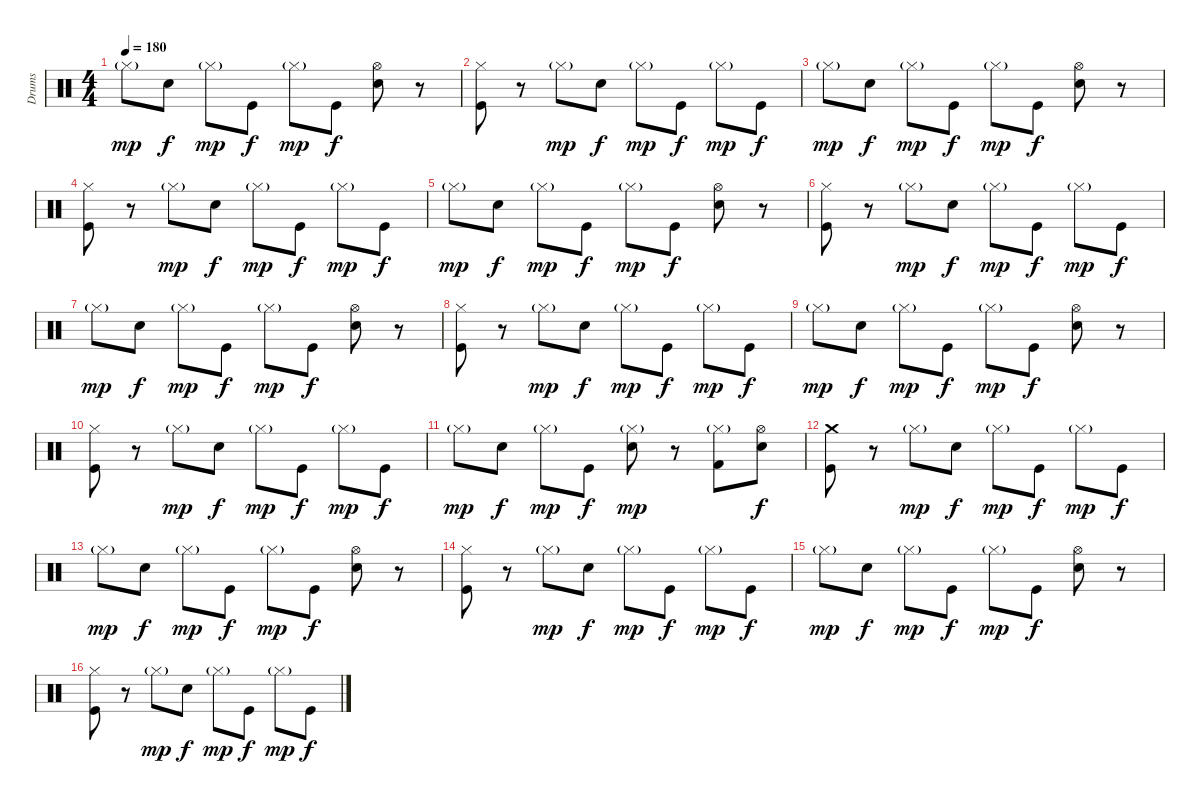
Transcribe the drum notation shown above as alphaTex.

\track ("Drums" "Drums") {instrument percussion}
\staff {score}
\articulation defaults
\ts (4 4)
\tempo 180
\clef neutral
\ks c "Hi-Hat (closed)"{g}.8{dy mp} "Electric Snare (hit)".8{dy f} "Hi-Hat (closed)"{g}.8{dy mp} "Kick (hit)".8{dy f} "Hi-Hat (closed)"{g}.8{dy mp} "Kick (hit)".8{dy f}
("Hi-Hat (open)" "Electric Snare (hit)").8 r.8 |
("Hi-Hat (closed)" "Kick (hit)").8 r.8 "Hi-Hat (closed)"{g}.8{dy mp} "Electric Snare (hit)".8{dy f} "Hi-Hat (closed)"{g}.8{dy mp} "Kick (hit)".8{dy f} "Hi-Hat (closed)"{g}.8{dy mp} "Kick (hit)".8{dy f} |
"Hi-Hat (closed)"{g}.8{dy mp} "Electric Snare (hit)".8{dy f} "Hi-Hat (closed)"{g}.8{dy mp} "Kick (hit)".8{dy f} "Hi-Hat (closed)"{g}.8{dy mp} "Kick (hit)".8{dy f} ("Hi-Hat (open)" "Electric Snare (hit)").8 r.8 |
("Hi-Hat (closed)" "Kick (hit)").8 r.8 "Hi-Hat (closed)"{g}.8{dy mp} "Electric Snare (hit)".8{dy f} "Hi-Hat (closed)"{g}.8{dy mp} "Kick (hit)".8{dy f} "Hi-Hat (closed)"{g}.8{dy mp} "Kick (hit)".8{dy f} |
"Hi-Hat (closed)"{g}.8{dy mp} "Electric Snare (hit)".8{dy f} "Hi-Hat (closed)"{g}.8{dy mp} "Kick (hit)".8{dy f} "Hi-Hat (closed)"{g}.8{dy mp} "Kick (hit)".8{dy f} ("Hi-Hat (open)" "Electric Snare (hit)").8 r.8 |
("Hi-Hat (closed)" "Kick (hit)").8 r.8 "Hi-Hat (closed)"{g}.8{dy mp} "Electric Snare (hit)".8{dy f} "Hi-Hat (closed)"{g}.8{dy mp} "Kick (hit)".8{dy f} "Hi-Hat (closed)"{g}.8{dy mp} "Kick (hit)".8{dy f} |
"Hi-Hat (closed)"{g}.8{dy mp} "Electric Snare (hit)".8{dy f} "Hi-Hat (closed)"{g}.8{dy mp} "Kick (hit)".8{dy f} "Hi-Hat (closed)"{g}.8{dy mp} "Kick (hit)".8{dy f} ("Hi-Hat (open)" "Electric Snare (hit)").8 r.8 |
("Hi-Hat (closed)" "Kick (hit)").8 r.8 "Hi-Hat (closed)"{g}.8{dy mp} "Electric Snare (hit)".8{dy f} "Hi-Hat (closed)"{g}.8{dy mp} "Kick (hit)".8{dy f} "Hi-Hat (closed)"{g}.8{dy mp} "Kick (hit)".8{dy f} |
"Hi-Hat (closed)"{g}.8{dy mp} "Electric Snare (hit)".8{dy f} "Hi-Hat (closed)"{g}.8{dy mp} "Kick (hit)".8{dy f} "Hi-Hat (closed)"{g}.8{dy mp} "Kick (hit)".8{dy f} ("Hi-Hat (open)" "Electric Snare (hit)").8 r.8 |
("Hi-Hat (closed)" "Kick (hit)").8 r.8 "Hi-Hat (closed)"{g}.8{dy mp} "Electric Snare (hit)".8{dy f} "Hi-Hat (closed)"{g}.8{dy mp} "Kick (hit)".8{dy f} "Hi-Hat (closed)"{g}.8{dy mp} "Kick (hit)".8{dy f} |
"Hi-Hat (closed)"{g}.8{dy mp} "Electric Snare (hit)".8{dy f} "Hi-Hat (closed)"{g}.8{dy mp} "Kick (hit)".8{dy f} ("Hi-Hat (closed)"{g} "Electric Snare (hit)").8{dy mp} r.8 ("Hi-Hat (closed)"{g} "Kick (hit) 2").8 ("Hi-Hat (open)" "Electric Snare (hit)").8{dy f} |
("Crash medium (hit)" "Kick (hit)").8 r.8 "Hi-Hat (closed)"{g}.8{dy mp} "Electric Snare (hit)".8{dy f} "Hi-Hat (closed)"{g}.8{dy mp} "Kick (hit)".8{dy f} "Hi-Hat (closed)"{g}.8{dy mp} "Kick (hit)".8{dy f} |
"Hi-Hat (closed)"{g}.8{dy mp} "Electric Snare (hit)".8{dy f} "Hi-Hat (closed)"{g}.8{dy mp} "Kick (hit)".8{dy f} "Hi-Hat (closed)"{g}.8{dy mp} "Kick (hit)".8{dy f} ("Hi-Hat (open)" "Electric Snare (hit)").8 r.8 |
("Hi-Hat (closed)" "Kick (hit)").8 r.8 "Hi-Hat (closed)"{g}.8{dy mp} "Electric Snare (hit)".8{dy f} "Hi-Hat (closed)"{g}.8{dy mp} "Kick (hit)".8{dy f} "Hi-Hat (closed)"{g}.8{dy mp} "Kick (hit)".8{dy f} |
"Hi-Hat (closed)"{g}.8{dy mp} "Electric Snare (hit)".8{dy f} "Hi-Hat (closed)"{g}.8{dy mp} "Kick (hit)".8{dy f} "Hi-Hat (closed)"{g}.8{dy mp} "Kick (hit)".8{dy f} ("Hi-Hat (open)" "Electric Snare (hit)").8 r.8 |
("Hi-Hat (closed)" "Kick (hit)").8 r.8 "Hi-Hat (closed)"{g}.8{dy mp} "Electric Snare (hit)".8{dy f} "Hi-Hat (closed)"{g}.8{dy mp} "Kick (hit)".8{dy f} "Hi-Hat (closed)"{g}.8{dy mp} "Kick (hit)".8{dy f}
